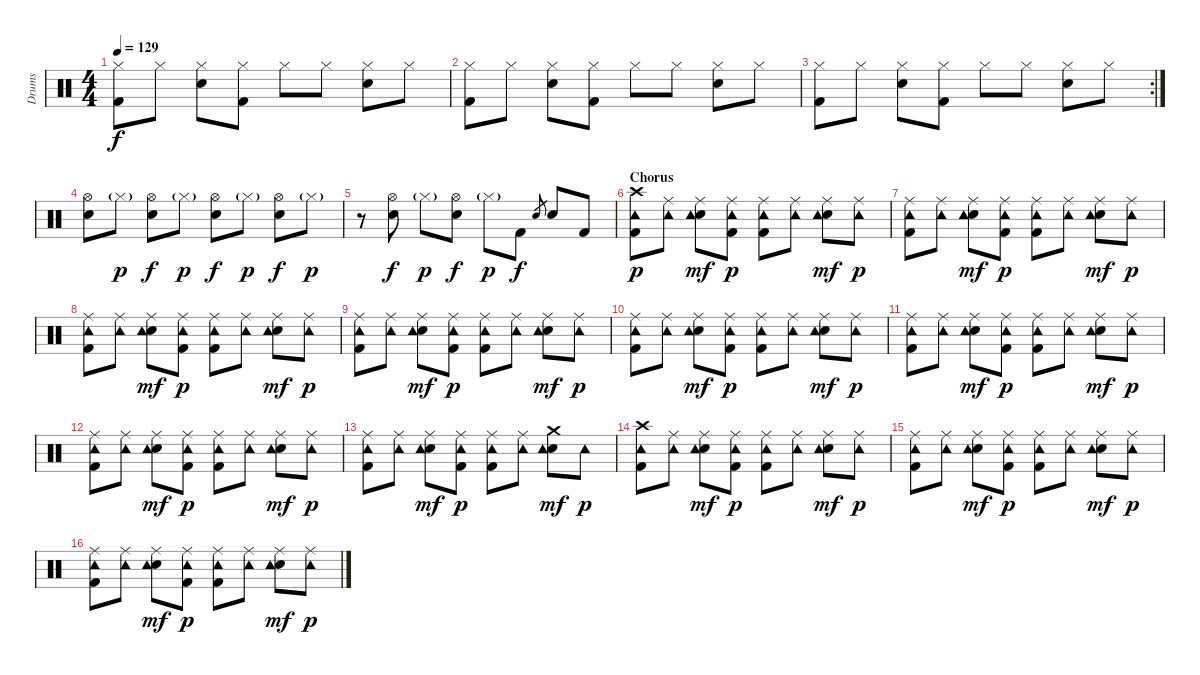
\track ("Drums" "Drums") {instrument percussion}
\staff {score}
\articulation defaults
\ts (4 4)
\tempo 129
\clef neutral
\ks c
("Kick (hit) 2" "Hi-Hat (closed)").8{dy f} "Hi-Hat (closed)".8 ("Snare (hit) 2" "Hi-Hat (closed)").8 ("Kick (hit) 2" "Hi-Hat (closed)").8 "Hi-Hat (closed)".8 "Hi-Hat (closed)".8 ("Snare (hit) 2" "Hi-Hat (closed)").8 "Hi-Hat (closed)".8 |
("Kick (hit) 2" "Hi-Hat (closed)").8 "Hi-Hat (closed)".8 ("Snare (hit) 2" "Hi-Hat (closed)").8 ("Kick (hit) 2" "Hi-Hat (closed)").8 "Hi-Hat (closed)".8 "Hi-Hat (closed)".8 ("Snare (hit) 2" "Hi-Hat (closed)").8 "Hi-Hat (closed)".8 |
\rc 2
("Kick (hit) 2" "Hi-Hat (closed)").8 "Hi-Hat (closed)".8 ("Snare (hit) 2" "Hi-Hat (closed)").8 ("Kick (hit) 2" "Hi-Hat (closed)").8 "Hi-Hat (closed)".8 "Hi-Hat (closed)".8 ("Snare (hit) 2" "Hi-Hat (closed)").8 "Hi-Hat (closed)".8 |
("Snare (hit) 2" "Hi-Hat (open)").8 "Hi-Hat (closed)"{g}.8{dy p} ("Snare (hit) 2" "Hi-Hat (open)").8{dy f} "Hi-Hat (closed)"{g}.8{dy p} ("Snare (hit) 2" "Hi-Hat (open)").8{dy f} "Hi-Hat (closed)"{g}.8{dy p} ("Snare (hit) 2" "Hi-Hat (open)").8{dy f} "Hi-Hat (closed)"{g}.8{dy p} |
r.8 ("Snare (hit) 2" "Hi-Hat (open)").8{dy f} "Hi-Hat (closed)"{g}.8{dy p} ("Snare (hit) 2" "Hi-Hat (open)").8{dy f} "Hi-Hat (closed)"{g}.8{dy p} "Kick (hit) 2".8{dy f} "Snare (hit) 2".8{gr} "Snare (hit) 2".8 "Kick (hit) 2".8 |
\section ("" "Chorus")
("Kick (hit) 2" "Crash high (hit)" "Tambourine (hit)").8{dy p} ("Ride (middle)" "Tambourine (hit)").8 ("Ride (middle)" "Snare (hit) 2" "Tambourine (hit)").8{dy mf} ("Kick (hit) 2" "Ride (middle)" "Tambourine (hit)").8{dy p} ("Kick (hit) 2" "Ride (middle)" "Tambourine (hit)").8 ("Ride (middle)" "Tambourine (hit)").8 ("Ride (middle)" "Snare (hit) 2" "Tambourine (hit)").8{dy mf} ("Ride (middle)" "Tambourine (hit)").8{dy p} |
("Kick (hit) 2" "Ride (middle)" "Tambourine (hit)").8 ("Ride (middle)" "Tambourine (hit)").8 ("Ride (middle)" "Snare (hit) 2" "Tambourine (hit)").8{dy mf} ("Kick (hit) 2" "Ride (middle)" "Tambourine (hit)").8{dy p} ("Kick (hit) 2" "Ride (middle)" "Tambourine (hit)").8 ("Ride (middle)" "Tambourine (hit)").8 ("Ride (middle)" "Snare (hit) 2" "Tambourine (hit)").8{dy mf} ("Ride (middle)" "Tambourine (hit)").8{dy p} |
("Kick (hit) 2" "Ride (middle)" "Tambourine (hit)").8 ("Ride (middle)" "Tambourine (hit)").8 ("Ride (middle)" "Snare (hit) 2" "Tambourine (hit)").8{dy mf} ("Kick (hit) 2" "Ride (middle)" "Tambourine (hit)").8{dy p} ("Kick (hit) 2" "Ride (middle)" "Tambourine (hit)").8 ("Ride (middle)" "Tambourine (hit)").8 ("Ride (middle)" "Snare (hit) 2" "Tambourine (hit)").8{dy mf} ("Ride (middle)" "Tambourine (hit)").8{dy p} |
("Kick (hit) 2" "Ride (middle)" "Tambourine (hit)").8 ("Ride (middle)" "Tambourine (hit)").8 ("Ride (middle)" "Snare (hit) 2" "Tambourine (hit)").8{dy mf} ("Kick (hit) 2" "Ride (middle)" "Tambourine (hit)").8{dy p} ("Kick (hit) 2" "Ride (middle)" "Tambourine (hit)").8 ("Ride (middle)" "Tambourine (hit)").8 ("Ride (middle)" "Snare (hit) 2" "Tambourine (hit)").8{dy mf} ("Ride (middle)" "Tambourine (hit)").8{dy p} |
("Kick (hit) 2" "Ride (middle)" "Tambourine (hit)").8 ("Ride (middle)" "Tambourine (hit)").8 ("Ride (middle)" "Snare (hit) 2" "Tambourine (hit)").8{dy mf} ("Kick (hit) 2" "Ride (middle)" "Tambourine (hit)").8{dy p} ("Kick (hit) 2" "Ride (middle)" "Tambourine (hit)").8 ("Ride (middle)" "Tambourine (hit)").8 ("Ride (middle)" "Snare (hit) 2" "Tambourine (hit)").8{dy mf} ("Ride (middle)" "Tambourine (hit)").8{dy p} |
("Kick (hit) 2" "Ride (middle)" "Tambourine (hit)").8 ("Ride (middle)" "Tambourine (hit)").8 ("Ride (middle)" "Snare (hit) 2" "Tambourine (hit)").8{dy mf} ("Kick (hit) 2" "Ride (middle)" "Tambourine (hit)").8{dy p} ("Kick (hit) 2" "Ride (middle)" "Tambourine (hit)").8 ("Ride (middle)" "Tambourine (hit)").8 ("Ride (middle)" "Snare (hit) 2" "Tambourine (hit)").8{dy mf} ("Ride (middle)" "Tambourine (hit)").8{dy p} |
("Kick (hit) 2" "Ride (middle)" "Tambourine (hit)").8 ("Ride (middle)" "Tambourine (hit)").8 ("Ride (middle)" "Snare (hit) 2" "Tambourine (hit)").8{dy mf} ("Kick (hit) 2" "Ride (middle)" "Tambourine (hit)").8{dy p} ("Kick (hit) 2" "Ride (middle)" "Tambourine (hit)").8 ("Ride (middle)" "Tambourine (hit)").8 ("Ride (middle)" "Snare (hit) 2" "Tambourine (hit)").8{dy mf} ("Ride (middle)" "Tambourine (hit)").8{dy p} |
("Kick (hit) 2" "Ride (middle)" "Tambourine (hit)").8 ("Ride (middle)" "Tambourine (hit)").8 ("Ride (middle)" "Snare (hit) 2" "Tambourine (hit)").8{dy mf} ("Kick (hit) 2" "Ride (middle)" "Tambourine (hit)").8{dy p} ("Kick (hit) 2" "Ride (middle)" "Tambourine (hit)").8 ("Ride (middle)" "Tambourine (hit)").8 ("Crash medium (hit)" "Snare (hit) 2" "Tambourine (hit)").8{dy mf} "Tambourine (hit)".8{dy p} |
("Kick (hit) 2" "Crash high (hit)" "Tambourine (hit)").8 ("Ride (middle)" "Tambourine (hit)").8 ("Ride (middle)" "Snare (hit) 2" "Tambourine (hit)").8{dy mf} ("Kick (hit) 2" "Ride (middle)" "Tambourine (hit)").8{dy p} ("Kick (hit) 2" "Ride (middle)" "Tambourine (hit)").8 ("Ride (middle)" "Tambourine (hit)").8 ("Ride (middle)" "Snare (hit) 2" "Tambourine (hit)").8{dy mf} ("Ride (middle)" "Tambourine (hit)").8{dy p} |
("Kick (hit) 2" "Ride (middle)" "Tambourine (hit)").8 ("Ride (middle)" "Tambourine (hit)").8 ("Ride (middle)" "Snare (hit) 2" "Tambourine (hit)").8{dy mf} ("Kick (hit) 2" "Ride (middle)" "Tambourine (hit)").8{dy p} ("Kick (hit) 2" "Ride (middle)" "Tambourine (hit)").8 ("Ride (middle)" "Tambourine (hit)").8 ("Ride (middle)" "Snare (hit) 2" "Tambourine (hit)").8{dy mf} ("Ride (middle)" "Tambourine (hit)").8{dy p} |
("Kick (hit) 2" "Ride (middle)" "Tambourine (hit)").8 ("Ride (middle)" "Tambourine (hit)").8 ("Ride (middle)" "Snare (hit) 2" "Tambourine (hit)").8{dy mf} ("Kick (hit) 2" "Ride (middle)" "Tambourine (hit)").8{dy p} ("Kick (hit) 2" "Ride (middle)" "Tambourine (hit)").8 ("Ride (middle)" "Tambourine (hit)").8 ("Ride (middle)" "Snare (hit) 2" "Tambourine (hit)").8{dy mf} ("Ride (middle)" "Tambourine (hit)").8{dy p}
